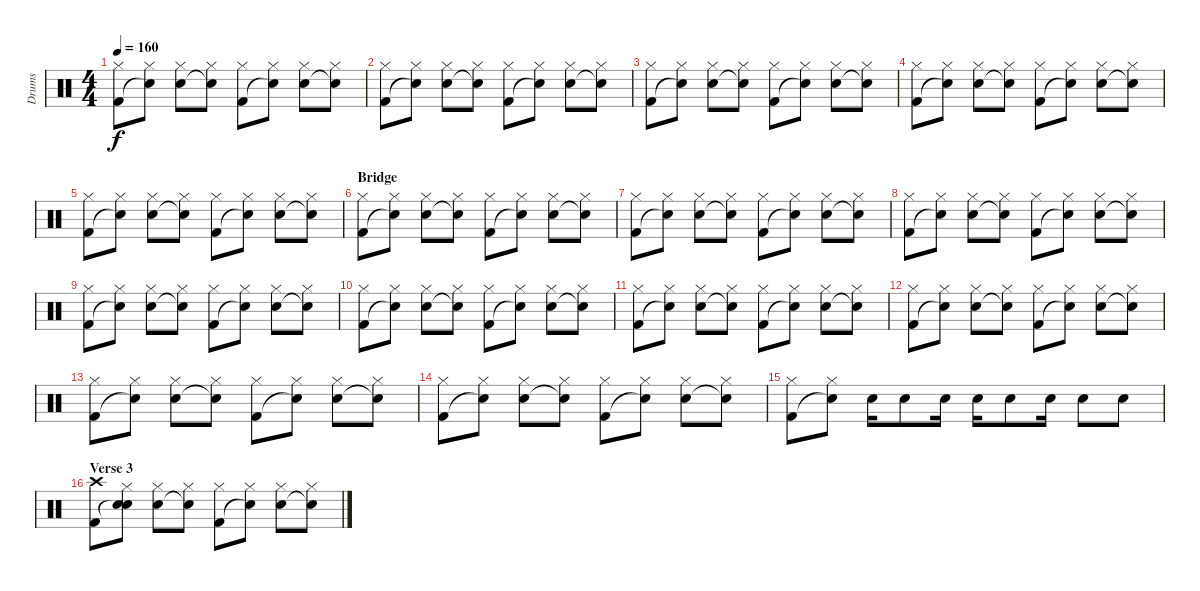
\track ("Drums" "Drums") {instrument percussion}
\staff {score}
\articulation defaults
\ts (4 4)
\tempo 160
\clef neutral
\ks c
("Kick (hit) 2" "Hi-Hat (closed)").8{dy f} ("Snare (hit)"{t} "Hi-Hat (closed)").8 ("Snare (hit) 2" "Hi-Hat (closed)").8 ("Snare (hit)"{t} "Hi-Hat (closed)").8 ("Kick (hit) 2" "Hi-Hat (closed)").8 ("Snare (hit)"{t} "Hi-Hat (closed)").8 ("Snare (hit) 2" "Hi-Hat (closed)").8 ("Snare (hit)"{t} "Hi-Hat (closed)").8 |
("Kick (hit) 2" "Hi-Hat (closed)").8 ("Snare (hit)"{t} "Hi-Hat (closed)").8 ("Snare (hit) 2" "Hi-Hat (closed)").8 ("Snare (hit)"{t} "Hi-Hat (closed)").8 ("Kick (hit) 2" "Hi-Hat (closed)").8 ("Snare (hit)"{t} "Hi-Hat (closed)").8 ("Snare (hit) 2" "Hi-Hat (closed)").8 ("Snare (hit)"{t} "Hi-Hat (closed)").8 |
("Kick (hit) 2" "Hi-Hat (closed)").8 ("Snare (hit)"{t} "Hi-Hat (closed)").8 ("Snare (hit) 2" "Hi-Hat (closed)").8 ("Snare (hit)"{t} "Hi-Hat (closed)").8 ("Kick (hit) 2" "Hi-Hat (closed)").8 ("Snare (hit)"{t} "Hi-Hat (closed)").8 ("Snare (hit) 2" "Hi-Hat (closed)").8 ("Snare (hit)"{t} "Hi-Hat (closed)").8 |
("Kick (hit) 2" "Hi-Hat (closed)").8 ("Snare (hit)"{t} "Hi-Hat (closed)").8 ("Snare (hit) 2" "Hi-Hat (closed)").8 ("Snare (hit)"{t} "Hi-Hat (closed)").8 ("Kick (hit) 2" "Hi-Hat (closed)").8 ("Snare (hit)"{t} "Hi-Hat (closed)").8 ("Snare (hit) 2" "Hi-Hat (closed)").8 ("Snare (hit)"{t} "Hi-Hat (closed)").8 |
("Kick (hit) 2" "Hi-Hat (closed)").8 ("Snare (hit)"{t} "Hi-Hat (closed)").8 ("Snare (hit) 2" "Hi-Hat (closed)").8 ("Snare (hit)"{t} "Hi-Hat (closed)").8 ("Kick (hit) 2" "Hi-Hat (closed)").8 ("Snare (hit)"{t} "Hi-Hat (closed)").8 ("Snare (hit) 2" "Hi-Hat (closed)").8 ("Snare (hit)"{t} "Hi-Hat (closed)").8 |
\section ("" "Bridge")
("Kick (hit) 2" "Hi-Hat (closed)").8 ("Snare (hit)"{t} "Hi-Hat (closed)").8 ("Snare (hit) 2" "Hi-Hat (closed)").8 ("Snare (hit)"{t} "Hi-Hat (closed)").8 ("Kick (hit) 2" "Hi-Hat (closed)").8 ("Snare (hit)"{t} "Hi-Hat (closed)").8 ("Snare (hit) 2" "Hi-Hat (closed)").8 ("Snare (hit)"{t} "Hi-Hat (closed)").8 |
("Kick (hit) 2" "Hi-Hat (closed)").8 ("Snare (hit)"{t} "Hi-Hat (closed)").8 ("Snare (hit) 2" "Hi-Hat (closed)").8 ("Snare (hit)"{t} "Hi-Hat (closed)").8 ("Kick (hit) 2" "Hi-Hat (closed)").8 ("Snare (hit)"{t} "Hi-Hat (closed)").8 ("Snare (hit) 2" "Hi-Hat (closed)").8 ("Snare (hit)"{t} "Hi-Hat (closed)").8 |
("Kick (hit) 2" "Hi-Hat (closed)").8 ("Snare (hit)"{t} "Hi-Hat (closed)").8 ("Snare (hit) 2" "Hi-Hat (closed)").8 ("Snare (hit)"{t} "Hi-Hat (closed)").8 ("Kick (hit) 2" "Hi-Hat (closed)").8 ("Snare (hit)"{t} "Hi-Hat (closed)").8 ("Snare (hit) 2" "Hi-Hat (closed)").8 ("Snare (hit)"{t} "Hi-Hat (closed)").8 |
("Kick (hit) 2" "Hi-Hat (closed)").8 ("Snare (hit)"{t} "Hi-Hat (closed)").8 ("Snare (hit) 2" "Hi-Hat (closed)").8 ("Snare (hit)"{t} "Hi-Hat (closed)").8 ("Kick (hit) 2" "Hi-Hat (closed)").8 ("Snare (hit)"{t} "Hi-Hat (closed)").8 ("Snare (hit) 2" "Hi-Hat (closed)").8 ("Snare (hit)"{t} "Hi-Hat (closed)").8 |
("Kick (hit) 2" "Hi-Hat (closed)").8 ("Snare (hit)"{t} "Hi-Hat (closed)").8 ("Snare (hit) 2" "Hi-Hat (closed)").8 ("Snare (hit)"{t} "Hi-Hat (closed)").8 ("Kick (hit) 2" "Hi-Hat (closed)").8 ("Snare (hit)"{t} "Hi-Hat (closed)").8 ("Snare (hit) 2" "Hi-Hat (closed)").8 ("Snare (hit)"{t} "Hi-Hat (closed)").8 |
("Kick (hit) 2" "Hi-Hat (closed)").8 ("Snare (hit)"{t} "Hi-Hat (closed)").8 ("Snare (hit) 2" "Hi-Hat (closed)").8 ("Snare (hit)"{t} "Hi-Hat (closed)").8 ("Kick (hit) 2" "Hi-Hat (closed)").8 ("Snare (hit)"{t} "Hi-Hat (closed)").8 ("Snare (hit) 2" "Hi-Hat (closed)").8 ("Snare (hit)"{t} "Hi-Hat (closed)").8 |
("Kick (hit) 2" "Hi-Hat (closed)").8 ("Snare (hit)"{t} "Hi-Hat (closed)").8 ("Snare (hit) 2" "Hi-Hat (closed)").8 ("Snare (hit)"{t} "Hi-Hat (closed)").8 ("Kick (hit) 2" "Hi-Hat (closed)").8 ("Snare (hit)"{t} "Hi-Hat (closed)").8 ("Snare (hit) 2" "Hi-Hat (closed)").8 ("Snare (hit)"{t} "Hi-Hat (closed)").8 |
("Kick (hit) 2" "Hi-Hat (closed)").8 ("Snare (hit)"{t} "Hi-Hat (closed)").8 ("Snare (hit) 2" "Hi-Hat (closed)").8 ("Snare (hit)"{t} "Hi-Hat (closed)").8 ("Kick (hit) 2" "Hi-Hat (closed)").8 ("Snare (hit)"{t} "Hi-Hat (closed)").8 ("Snare (hit) 2" "Hi-Hat (closed)").8 ("Snare (hit)"{t} "Hi-Hat (closed)").8 |
("Kick (hit) 2" "Hi-Hat (closed)").8 ("Snare (hit)"{t} "Hi-Hat (closed)").8 ("Snare (hit) 2" "Hi-Hat (closed)").8 ("Snare (hit)"{t} "Hi-Hat (closed)").8 ("Kick (hit) 2" "Hi-Hat (closed)").8 ("Snare (hit)"{t} "Hi-Hat (closed)").8 ("Snare (hit) 2" "Hi-Hat (closed)").8 ("Snare (hit)"{t} "Hi-Hat (closed)").8 |
("Kick (hit) 2" "Hi-Hat (closed)").8 ("Snare (hit)"{t} "Hi-Hat (closed)").8 "Snare (hit) 2".16 "Snare (hit) 2".8 "Snare (hit) 2".16 "Snare (hit) 2".16 "Snare (hit) 2".8 "Snare (hit) 2".16 "Snare (hit) 2".8 "Snare (hit) 2".8 |
\section ("" "Verse 3")
("Kick (hit) 2" "Crash high (hit)").8 ("Snare (hit)"{t} "Hi-Hat (closed)" "Snare (hit)").8 ("Snare (hit) 2" "Hi-Hat (closed)").8 ("Snare (hit)"{t} "Hi-Hat (closed)").8 ("Kick (hit) 2" "Hi-Hat (closed)").8 ("Snare (hit)"{t} "Hi-Hat (closed)").8 ("Snare (hit) 2" "Hi-Hat (closed)").8 ("Snare (hit)"{t} "Hi-Hat (closed)").8
